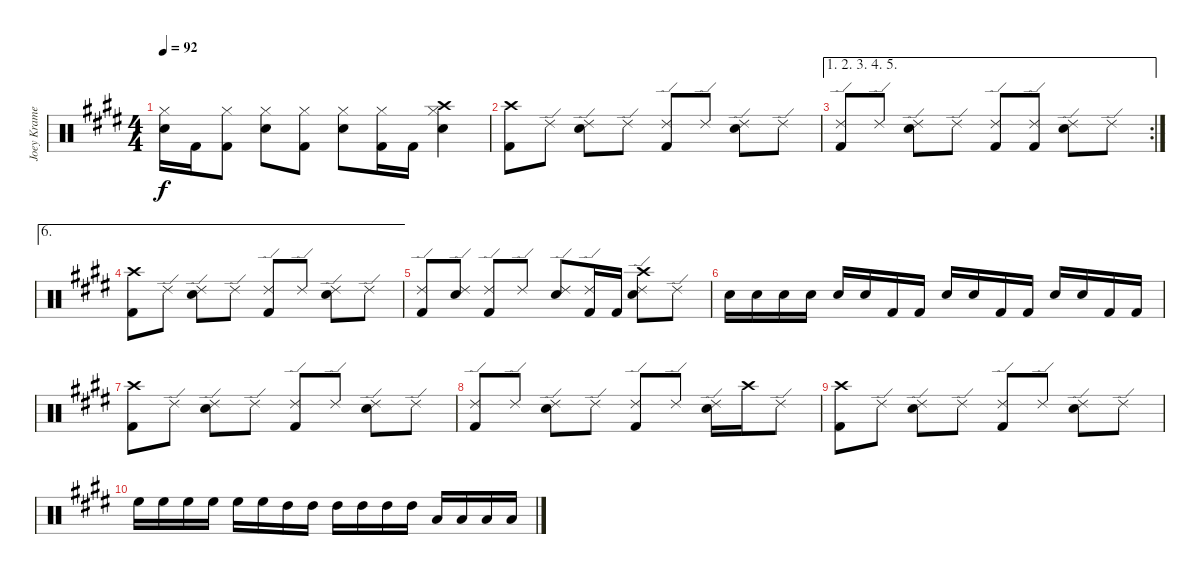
\track ("Joey Kramer" "Joey Krame") {instrument percussion}
\staff {score}
\articulation defaults
\ts (4 4)
\tempo 92
\clef neutral
\ks c#minor
("Hi-Hat (closed)" "Electric Snare (hit)").16{dy f} "Kick (hit) 2".16 ("Hi-Hat (closed)" "Kick (hit) 2").8 ("Hi-Hat (closed)" "Electric Snare (hit)").8 ("Hi-Hat (closed)" "Kick (hit) 2").8 ("Hi-Hat (closed)" "Electric Snare (hit)").8 ("Hi-Hat (closed)" "Kick (hit) 2").16 "Kick (hit) 2".16 ("Crash high (hit)" "Hi-Hat (closed)" "Electric Snare (hit)").4 |
\ks e
("Crash high (hit)" "Kick (hit) 2").8 "Ride (edge) 2".8 ("Ride (edge) 2" "Electric Snare (hit)").8 "Ride (edge) 2".8 ("Ride (edge) 2" "Kick (hit) 2").8 "Ride (edge) 2".8 ("Ride (edge) 2" "Electric Snare (hit)").8 "Ride (edge) 2".8 |
\ae (1 2 3 4 5)
\rc 2
\ks c#minor
("Ride (edge) 2" "Kick (hit) 2").8 "Ride (edge) 2".8 ("Ride (edge) 2" "Electric Snare (hit)").8 "Ride (edge) 2".8 ("Ride (edge) 2" "Kick (hit) 2").8 ("Ride (edge) 2" "Kick (hit) 2").8 ("Ride (edge) 2" "Electric Snare (hit)").8 "Ride (edge) 2".8 |
\ae 6
\ks e
("Crash high (hit)" "Kick (hit) 2").8 "Ride (edge) 2".8 ("Ride (edge) 2" "Electric Snare (hit)").8 "Ride (edge) 2".8 ("Ride (edge) 2" "Kick (hit) 2").8 "Ride (edge) 2".8 ("Ride (edge) 2" "Electric Snare (hit)").8 "Ride (edge) 2".8 |
("Ride (edge) 2" "Kick (hit) 2").8 ("Ride (edge) 2" "Electric Snare (hit)").8 ("Ride (edge) 2" "Kick (hit) 2").8 "Ride (edge) 2".8 ("Ride (edge) 2" "Electric Snare (hit)").8 ("Ride (edge) 2" "Kick (hit) 2").16 "Kick (hit) 2".16 ("Crash high (hit)" "Ride (edge) 2" "Electric Snare (hit)").8 "Ride (edge) 2".8 |
"Electric Snare (hit)".16 "Electric Snare (hit)".16 "Electric Snare (hit)".16 "Electric Snare (hit)".16 "Electric Snare (hit)".16 "Electric Snare (hit)".16 "Kick (hit) 2".16 "Kick (hit) 2".16 "Electric Snare (hit)".16 "Electric Snare (hit)".16 "Kick (hit) 2".16 "Kick (hit) 2".16 "Electric Snare (hit)".16 "Electric Snare (hit)".16 "Kick (hit) 2".16 "Kick (hit) 2".16 |
("Crash high (hit)" "Kick (hit) 2").8 "Ride (edge) 2".8 ("Ride (edge) 2" "Electric Snare (hit)").8 "Ride (edge) 2".8 ("Ride (edge) 2" "Kick (hit) 2").8 "Ride (edge) 2".8 ("Ride (edge) 2" "Electric Snare (hit)").8 "Ride (edge) 2".8 |
("Ride (edge) 2" "Kick (hit) 2").8 "Ride (edge) 2".8 ("Ride (edge) 2" "Electric Snare (hit)").8 "Ride (edge) 2".8 ("Ride (edge) 2" "Kick (hit) 2").8 "Ride (edge) 2".8 ("Ride (edge) 2" "Electric Snare (hit)").16 "Crash high (hit)".16 "Ride (edge) 2".8 |
("Crash high (hit)" "Kick (hit) 2").8 "Ride (edge) 2".8 ("Ride (edge) 2" "Electric Snare (hit)").8 "Ride (edge) 2".8 ("Ride (edge) 2" "Kick (hit) 2").8 "Ride (edge) 2".8 ("Ride (edge) 2" "Electric Snare (hit)").8 "Ride (edge) 2".8 |
"High Floor Tom (hit)".16 "High Floor Tom (hit)".16 "High Floor Tom (hit)".16 "High Floor Tom (hit)".16 "High Floor Tom (hit)".16 "High Floor Tom (hit)".16 "High Tom (hit)".16 "High Tom (hit)".16 "High Tom (hit)".16 "High Tom (hit)".16 "High Tom (hit)".16 "High Tom (hit)".16 "Low Tom (hit)".16 "Low Tom (hit)".16 "Low Tom (hit)".16 "Low Tom (hit)".16
